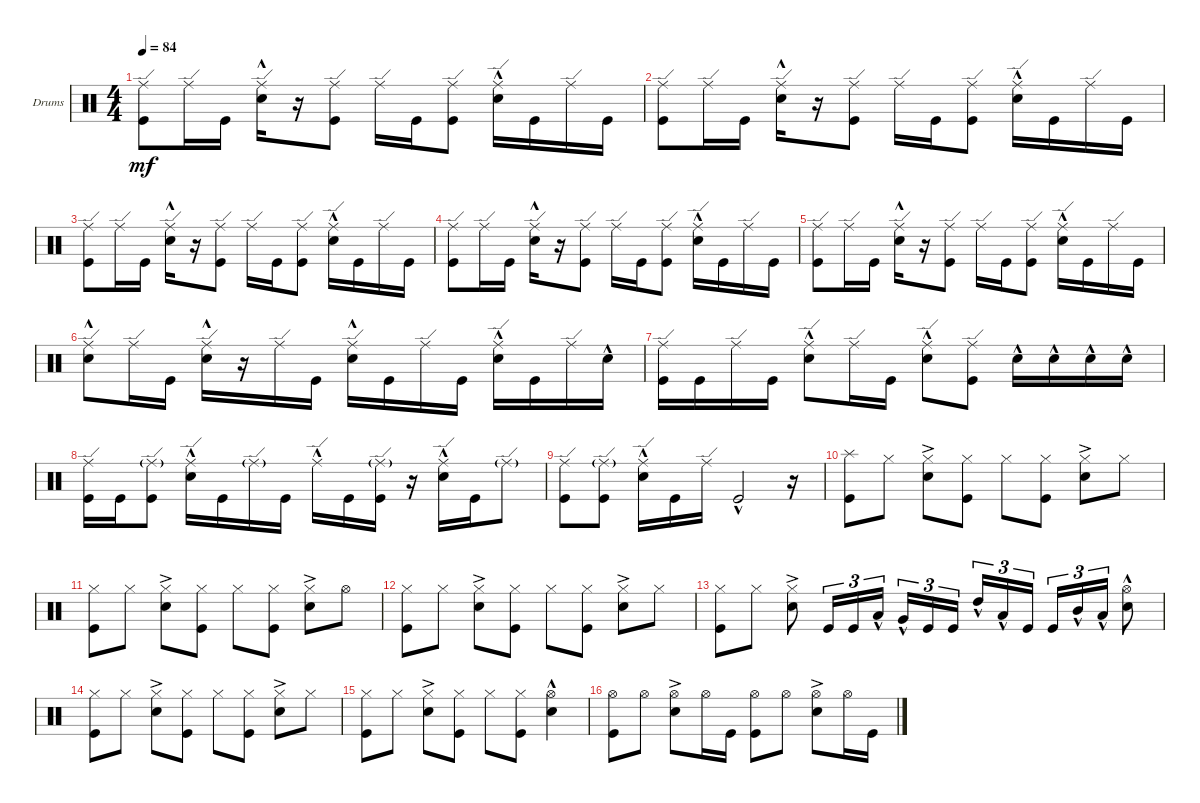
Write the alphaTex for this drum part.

\defaultSystemsLayout 4
\bracketExtendMode groupsimilarinstruments
\firstSystemTrackNameOrientation horizontal
\otherSystemsTrackNameOrientation horizontal
\track ("Drumkit" "Drums") {instrument percussion}
\staff {score}
\articulation defaults
\ts (4 4)
\tempo 84
\clef neutral
\ks c
("Kick (hit)" "Ride (edge)").8{dy mf} "Ride (edge)".16 "Kick (hit)".16 ("Ride (edge)" "Snare (hit) 2"{hac}).16 r.16 ("Kick (hit)" "Ride (edge)").8 "Ride (edge)".16 "Kick (hit)".16 ("Ride (edge)" "Kick (hit)").8 ("Snare (hit) 2"{hac} "Ride (edge)").16 "Kick (hit)".16 "Ride (edge)".16 "Kick (hit)".16 |
("Kick (hit)" "Ride (edge)").8 "Ride (edge)".16 "Kick (hit)".16 ("Ride (edge)" "Snare (hit) 2"{hac}).16 r.16 ("Kick (hit)" "Ride (edge)").8 "Ride (edge)".16 "Kick (hit)".16 ("Ride (edge)" "Kick (hit)").8 ("Snare (hit) 2"{hac} "Ride (edge)").16 "Kick (hit)".16 "Ride (edge)".16 "Kick (hit)".16 |
("Kick (hit)" "Ride (edge)").8 "Ride (edge)".16 "Kick (hit)".16 ("Ride (edge)" "Snare (hit) 2"{hac}).16 r.16 ("Kick (hit)" "Ride (edge)").8 "Ride (edge)".16 "Kick (hit)".16 ("Ride (edge)" "Kick (hit)").8 ("Snare (hit) 2"{hac} "Ride (edge)").16 "Kick (hit)".16 "Ride (edge)".16 "Kick (hit)".16 |
("Kick (hit)" "Ride (edge)").8 "Ride (edge)".16 "Kick (hit)".16 ("Ride (edge)" "Snare (hit) 2"{hac}).16 r.16 ("Kick (hit)" "Ride (edge)").8 "Ride (edge)".16 "Kick (hit)".16 ("Ride (edge)" "Kick (hit)").8 ("Snare (hit) 2"{hac} "Ride (edge)").16 "Kick (hit)".16 "Ride (edge)".16 "Kick (hit)".16 |
("Kick (hit)" "Ride (edge)").8 "Ride (edge)".16 "Kick (hit)".16 ("Ride (edge)" "Snare (hit) 2"{hac}).16 r.16 ("Kick (hit)" "Ride (edge)").8 "Ride (edge)".16 "Kick (hit)".16 ("Ride (edge)" "Kick (hit)").8 ("Snare (hit) 2"{hac} "Ride (edge)").16 "Kick (hit)".16 "Ride (edge)".16 "Kick (hit)".16 |
("Ride (edge)" "Snare (hit) 2"{hac}).8 "Ride (edge)".16 "Kick (hit)".16 ("Ride (edge)" "Snare (hit) 2"{hac}).16 r.16 "Ride (edge)".16 "Kick (hit)".16 ("Ride (edge)" "Snare (hit) 2"{hac}).16 "Kick (hit)".16 "Ride (edge)".16 "Kick (hit)".16 ("Snare (hit) 2"{hac} "Ride (edge)").16 "Kick (hit)".16 "Ride (edge)".16 "Snare (hit) 2"{hac}.16 |
("Ride (edge)" "Kick (hit)").16 "Kick (hit)".16 "Ride (edge)".16 "Kick (hit)".16 ("Snare (hit) 2"{hac} "Ride (edge)").8 "Ride (edge)".16 "Kick (hit)".16 ("Snare (hit) 2"{hac} "Ride (edge)").8 ("Kick (hit)" "Ride (edge)").8 "Snare (hit) 2"{hac}.16 "Snare (hit) 2"{hac}.16 "Snare (hit) 2"{hac}.16 "Snare (hit) 2"{hac}.16 |
("Kick (hit)" "Ride (edge)").16 "Kick (hit)".16 ("Kick (hit)" "Ride (edge)"{g}).8 ("Snare (hit) 2"{hac} "Ride (edge)"{hac}).16 "Kick (hit)".16 "Ride (edge)"{g}.16 "Kick (hit)".16 "Ride (edge)"{hac}.16 "Kick (hit)".16 ("Ride (edge)"{g} "Kick (hit)").16 r.16 ("Snare (hit) 2"{hac} "Ride (edge)"{hac}).16 "Kick (hit)".16 "Ride (edge)"{g}.8 |
("Kick (hit)" "Ride (edge)").8 ("Kick (hit)" "Ride (edge)"{g}).8 ("Snare (hit) 2"{hac} "Ride (edge)"{hac}).16 "Kick (hit)".16 "Ride (edge)".16 "Kick (hit)"{hac}.2 r.16 |
("Kick (hit)" "Splash (hit)").8 "Hi-Hat (closed)".8 ("Snare (hit) 2"{ac} "Hi-Hat (closed)").8 ("Hi-Hat (closed)" "Kick (hit)").8 "Hi-Hat (closed)".8 ("Hi-Hat (closed)" "Kick (hit)").8 ("Snare (hit) 2"{ac} "Hi-Hat (closed)").8 "Hi-Hat (closed)".8 |
("Kick (hit)" "Hi-Hat (closed)").8 "Hi-Hat (closed)".8 ("Snare (hit) 2"{ac} "Hi-Hat (closed)").8 ("Hi-Hat (closed)" "Kick (hit)").8 "Hi-Hat (closed)".8 ("Hi-Hat (closed)" "Kick (hit)").8 ("Snare (hit) 2"{ac} "Hi-Hat (closed)").8 "Hi-Hat (open)".8 |
("Kick (hit)" "Hi-Hat (closed)").8 "Hi-Hat (closed)".8 ("Snare (hit) 2"{ac} "Hi-Hat (closed)").8 ("Hi-Hat (closed)" "Kick (hit)").8 "Hi-Hat (closed)".8 ("Hi-Hat (closed)" "Kick (hit)").8 ("Snare (hit) 2"{ac} "Hi-Hat (closed)").8 "Hi-Hat (closed)".8 |
("Kick (hit)" "Hi-Hat (closed)").8 "Hi-Hat (closed)".8 ("Snare (hit) 2"{ac} "Hi-Hat (closed)").8 "Kick (hit)".16{tu (3 2)} "Kick (hit)".16{tu (3 2)} "Low Tom (hit)"{hac}.16{tu (3 2)} "Very Low Tom (hit)"{hac}.16{tu (3 2)} "Kick (hit)".16{tu (3 2)} "Kick (hit)".16{tu (3 2)} "High Tom (hit)"{hac}.16{tu (3 2)} "Low Tom (hit)"{hac}.16{tu (3 2)} "Kick (hit)".16{tu (3 2)} "Kick (hit)".16{tu (3 2)} "Mid Tom (hit)"{hac}.16{tu (3 2)} "Low Tom (hit)"{hac}.16{tu (3 2)} ("Snare (hit) 2"{hac} "Hi-Hat (open)").8 |
("Kick (hit)" "Hi-Hat (closed)").8 "Hi-Hat (closed)".8 ("Snare (hit) 2"{ac} "Hi-Hat (closed)").8 ("Hi-Hat (closed)" "Kick (hit)").8 "Hi-Hat (closed)".8 ("Hi-Hat (closed)" "Kick (hit)").8 ("Snare (hit) 2"{ac} "Hi-Hat (closed)").8 "Hi-Hat (closed)".8 |
("Kick (hit)" "Hi-Hat (closed)").8 "Hi-Hat (closed)".8 ("Snare (hit) 2"{ac} "Hi-Hat (closed)").8 ("Hi-Hat (closed)" "Kick (hit)").8 "Hi-Hat (closed)".8 ("Hi-Hat (closed)" "Kick (hit)").8 ("Snare (hit) 2"{hac} "Hi-Hat (open)").4 |
("Hi-Hat (open)" "Kick (hit)").8 "Hi-Hat (open)".8 ("Snare (hit) 2"{ac} "Hi-Hat (open)").8 "Hi-Hat (open)".16 "Kick (hit)".16 ("Hi-Hat (open)" "Kick (hit)").8 "Hi-Hat (open)".8 ("Snare (hit) 2"{ac} "Hi-Hat (open)").8 "Hi-Hat (open)".16 "Kick (hit)".16
